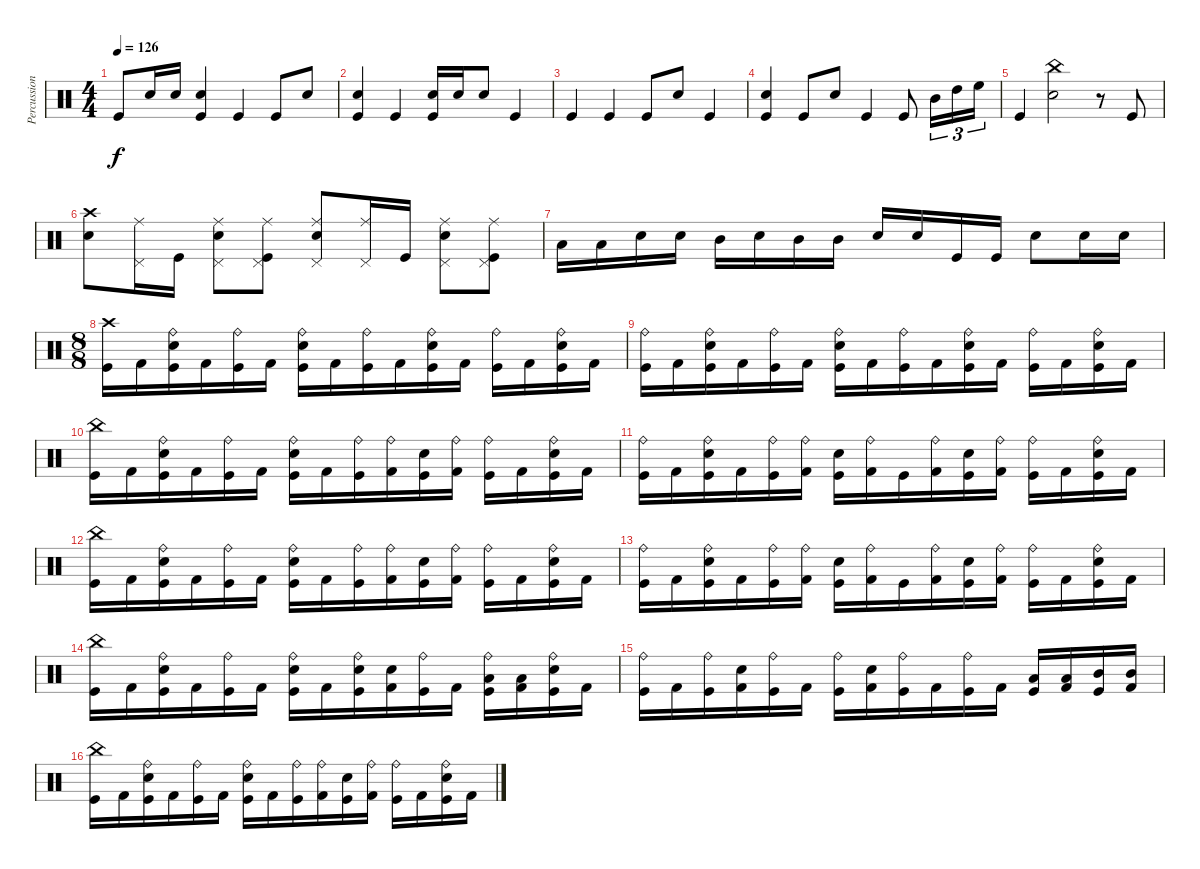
\track ("Percussion" "Percussion") {instrument percussion}
\staff {score}
\articulation defaults
\ts (4 4)
\tempo 126
\clef neutral
\ks c "Kick (hit)".8{dy f} "Snare (hit) 2".16 "Snare (hit) 2".16
("Snare (hit) 2" "Kick (hit)").4 "Kick (hit)".4 "Kick (hit)".8 "Snare (hit) 2".8 |
("Snare (hit) 2" "Kick (hit)").4 "Kick (hit)".4 ("Snare (hit) 2" "Kick (hit)").16 "Snare (hit) 2".16 "Snare (hit) 2".8 "Kick (hit)".4 |
"Kick (hit)".4 "Kick (hit)".4 "Kick (hit)".8 "Snare (hit) 2".8 "Kick (hit)".4 |
("Snare (hit) 2" "Kick (hit)").4 "Kick (hit)".8 "Snare (hit) 2".8 "Kick (hit)".4 "Kick (hit)".8 "Mid Tom (hit)".16{tu (3 2)} "High Tom (hit)".16{tu (3 2)} "High Floor Tom (hit)".16{tu (3 2)} |
"Kick (hit)".4 ("Snare (hit) 2" "China (hit)").2 r.8 "Kick (hit)".8 |
("Snare (hit) 2" "Crash high (hit)").8 ("Pedal Hi-Hat (hit)" "Ride (middle)").16 "Kick (hit)".16 ("Pedal Hi-Hat (hit)" "Ride (middle)" "Snare (hit) 2").8 ("Pedal Hi-Hat (hit)" "Ride (middle)" "Kick (hit)").8 ("Pedal Hi-Hat (hit)" "Ride (middle)" "Snare (hit) 2").8 ("Pedal Hi-Hat (hit)" "Ride (middle)").16 "Kick (hit)".16 ("Pedal Hi-Hat (hit)" "Ride (middle)" "Snare (hit) 2").8 ("Pedal Hi-Hat (hit)" "Ride (middle)" "Kick (hit)").8 |
"Low Tom (hit)".16 "Low Tom (hit)".16 "Electric Snare (hit)".16 "Electric Snare (hit)".16 "Mid Tom (hit)".16 "Electric Snare (hit)".16 "Mid Tom (hit)".16 "Mid Tom (hit)".16 "Electric Snare (hit)".16 "Electric Snare (hit)".16 "Kick (hit)".16 "Kick (hit)".16 "Electric Snare (hit)".8 "Snare (hit) 2".16 "Snare (hit) 2".16 |
\ts (8 8)
("Crash high (hit)" "Kick (hit)").16 "Kick (hit) 2".16 ("Ride (bell)" "Electric Snare (hit)" "Kick (hit)").16 "Kick (hit) 2".16 ("Ride (bell)" "Kick (hit)").16 "Kick (hit) 2".16 ("Ride (bell)" "Electric Snare (hit)" "Kick (hit)").16 "Kick (hit) 2".16 ("Ride (bell)" "Kick (hit)").16 "Kick (hit) 2".16 ("Ride (bell)" "Electric Snare (hit)" "Kick (hit)").16 "Kick (hit) 2".16 ("Ride (bell)" "Kick (hit)").16 "Kick (hit) 2".16 ("Ride (bell)" "Electric Snare (hit)" "Kick (hit)").16 "Kick (hit) 2".16 |
("Ride (bell)" "Kick (hit)").16 "Kick (hit) 2".16 ("Ride (bell)" "Electric Snare (hit)" "Kick (hit)").16 "Kick (hit) 2".16 ("Ride (bell)" "Kick (hit)").16 "Kick (hit) 2".16 ("Ride (bell)" "Electric Snare (hit)" "Kick (hit)").16 "Kick (hit) 2".16 ("Ride (bell)" "Kick (hit)").16 "Kick (hit) 2".16 ("Ride (bell)" "Electric Snare (hit)" "Kick (hit)").16 "Kick (hit) 2".16 ("Ride (bell)" "Kick (hit)").16 "Kick (hit) 2".16 ("Ride (bell)" "Electric Snare (hit)" "Kick (hit)").16 "Kick (hit) 2".16 |
("China (hit)" "Kick (hit)").16 "Kick (hit) 2".16 ("Ride (bell)" "Electric Snare (hit)" "Kick (hit)").16 "Kick (hit) 2".16 ("Ride (bell)" "Kick (hit)").16 "Kick (hit) 2".16 ("Ride (bell)" "Electric Snare (hit)" "Kick (hit)").16 "Kick (hit) 2".16 ("Ride (bell)" "Kick (hit)").16 ("Ride (bell)" "Kick (hit) 2").16 ("Electric Snare (hit)" "Kick (hit)").16 ("Ride (bell)" "Kick (hit) 2").16 ("Ride (bell)" "Kick (hit)").16 "Kick (hit) 2".16 ("Ride (bell)" "Electric Snare (hit)" "Kick (hit)").16 "Kick (hit) 2".16 |
("Ride (bell)" "Kick (hit)").16 "Kick (hit) 2".16 ("Ride (bell)" "Electric Snare (hit)" "Kick (hit)").16 "Kick (hit) 2".16 ("Ride (bell)" "Kick (hit)").16 ("Ride (bell)" "Kick (hit) 2").16 ("Electric Snare (hit)" "Kick (hit)").16 ("Ride (bell)" "Kick (hit) 2").16 "Kick (hit)".16 ("Ride (bell)" "Kick (hit) 2").16 ("Electric Snare (hit)" "Kick (hit)").16 ("Ride (bell)" "Kick (hit) 2").16 ("Ride (bell)" "Kick (hit)").16 "Kick (hit) 2".16 ("Ride (bell)" "Electric Snare (hit)" "Kick (hit)").16 "Kick (hit) 2".16 |
("China (hit)" "Kick (hit)").16 "Kick (hit) 2".16 ("Ride (bell)" "Electric Snare (hit)" "Kick (hit)").16 "Kick (hit) 2".16 ("Ride (bell)" "Kick (hit)").16 "Kick (hit) 2".16 ("Ride (bell)" "Electric Snare (hit)" "Kick (hit)").16 "Kick (hit) 2".16 ("Ride (bell)" "Kick (hit)").16 ("Ride (bell)" "Kick (hit) 2").16 ("Electric Snare (hit)" "Kick (hit)").16 ("Ride (bell)" "Kick (hit) 2").16 ("Ride (bell)" "Kick (hit)").16 "Kick (hit) 2".16 ("Ride (bell)" "Electric Snare (hit)" "Kick (hit)").16 "Kick (hit) 2".16 |
("Ride (bell)" "Kick (hit)").16 "Kick (hit) 2".16 ("Ride (bell)" "Electric Snare (hit)" "Kick (hit)").16 "Kick (hit) 2".16 ("Ride (bell)" "Kick (hit)").16 ("Ride (bell)" "Kick (hit) 2").16 ("Electric Snare (hit)" "Kick (hit)").16 ("Ride (bell)" "Kick (hit) 2").16 "Kick (hit)".16 ("Ride (bell)" "Kick (hit) 2").16 ("Electric Snare (hit)" "Kick (hit)").16 ("Ride (bell)" "Kick (hit) 2").16 ("Ride (bell)" "Kick (hit)").16 "Kick (hit) 2".16 ("Ride (bell)" "Electric Snare (hit)" "Kick (hit)").16 "Kick (hit) 2".16 |
("China (hit)" "Kick (hit)").16 "Kick (hit) 2".16 ("Ride (bell)" "Electric Snare (hit)" "Kick (hit)").16 "Kick (hit) 2".16 ("Ride (bell)" "Kick (hit)").16 "Kick (hit) 2".16 ("Ride (bell)" "Electric Snare (hit)" "Kick (hit)").16 "Kick (hit) 2".16 ("Ride (bell)" "Electric Snare (hit)" "Kick (hit)").16 ("Electric Snare (hit)" "Kick (hit) 2").16 ("Ride (bell)" "Kick (hit)").16 "Kick (hit) 2".16 ("Ride (bell)" "Low Tom (hit)" "Kick (hit)").16 ("Low Tom (hit)" "Kick (hit) 2").16 ("Ride (bell)" "Electric Snare (hit)" "Kick (hit)").16 "Kick (hit) 2".16 |
("Ride (bell)" "Kick (hit)").16 "Kick (hit) 2".16 ("Ride (bell)" "Kick (hit)").16 ("Electric Snare (hit)" "Kick (hit) 2").16 ("Ride (bell)" "Kick (hit)").16 "Kick (hit) 2".16 ("Ride (bell)" "Kick (hit)").16 ("Electric Snare (hit)" "Kick (hit) 2").16 ("Ride (bell)" "Kick (hit)").16 "Kick (hit) 2".16 ("Ride (bell)" "Kick (hit)").16 "Kick (hit) 2".16 ("Low Tom (hit)" "Kick (hit)").16 ("Low Tom (hit)" "Kick (hit) 2").16 ("Mid Tom (hit)" "Kick (hit)").16 ("Mid Tom (hit)" "Kick (hit) 2").16 |
("China (hit)" "Kick (hit)").16 "Kick (hit) 2".16 ("Ride (bell)" "Electric Snare (hit)" "Kick (hit)").16 "Kick (hit) 2".16 ("Ride (bell)" "Kick (hit)").16 "Kick (hit) 2".16 ("Ride (bell)" "Electric Snare (hit)" "Kick (hit)").16 "Kick (hit) 2".16 ("Ride (bell)" "Kick (hit)").16 ("Ride (bell)" "Kick (hit) 2").16 ("Electric Snare (hit)" "Kick (hit)").16 ("Ride (bell)" "Kick (hit) 2").16 ("Ride (bell)" "Kick (hit)").16 "Kick (hit) 2".16 ("Ride (bell)" "Electric Snare (hit)" "Kick (hit)").16 "Kick (hit) 2".16
